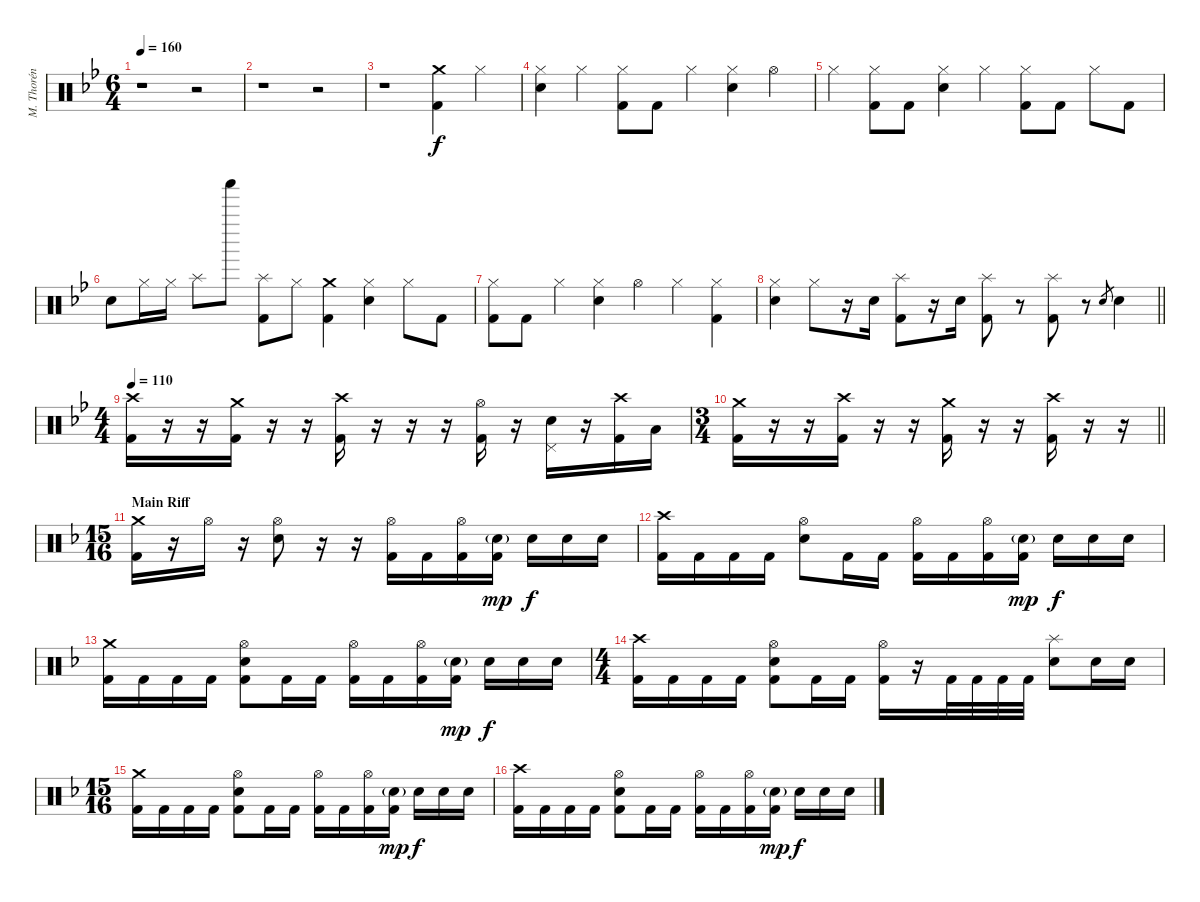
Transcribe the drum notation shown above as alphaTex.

\track ("M. Thorén (Drums)" "M. Thorén ") {instrument percussion}
\staff {score}
\articulation defaults
\ts (6 4)
\tempo 160
\clef neutral
\ks gminor
r.1{dy f} r.2 |
r.1 r.2 |
r.1 ("Crash medium (hit)" "Kick (hit) 2").4 "Hi-Hat (closed)".4 |
("Hi-Hat (closed)" "Electric Snare (hit)").4 "Hi-Hat (closed)".4 ("Hi-Hat (closed)" "Kick (hit) 2").8 "Kick (hit) 2".8 "Hi-Hat (closed)".4 ("Hi-Hat (closed)" "Electric Snare (hit)").4 "Hi-Hat (open)".4 |
"Hi-Hat (closed)".4 ("Hi-Hat (closed)" "Kick (hit) 2").8 "Kick (hit) 2".8 ("Hi-Hat (closed)" "Electric Snare (hit)").4 "Hi-Hat (closed)".4 ("Hi-Hat (closed)" "Kick (hit) 2").8 "Kick (hit) 2".8 "Hi-Hat (closed)".8 "Kick (hit) 2".8 |
"Electric Snare (hit)".8 "Hi-Hat (closed)".16 "Hi-Hat (closed)".16 "Splash (hit)".8 "Shaker (hit)".8 ("Splash (hit)" "Kick (hit) 2").8 "Hi-Hat (closed)".8 ("Crash medium (hit)" "Kick (hit) 2").4 ("Hi-Hat (closed)" "Electric Snare (hit)").4 "Hi-Hat (closed)".8 "Kick (hit) 2".8 |
("Hi-Hat (closed)" "Kick (hit) 2").8 "Kick (hit) 2".8 "Hi-Hat (closed)".4 ("Hi-Hat (closed)" "Electric Snare (hit)").4 "Hi-Hat (open)".4 "Hi-Hat (closed)".4 ("Hi-Hat (closed)" "Kick (hit) 2").4 |
\barLineRight lightlight
("Hi-Hat (closed)" "Electric Snare (hit)").4 "Hi-Hat (closed)".8 r.16 "Electric Snare (hit)".16 ("Splash (hit)" "Kick (hit) 2").8 r.16 "Electric Snare (hit)".16 ("Splash (hit)" "Kick (hit) 2").8 r.8 ("Splash (hit)" "Kick (hit) 2").8 r.8 "Electric Snare (hit)".8{gr} "Electric Snare (hit)".4 |
\ts (4 4)
\tempo 110
("Crash high (hit)" "Kick (hit) 2").16 r.16 r.16 ("Crash medium (hit)" "Kick (hit) 2").16 r.16 r.16 ("Crash high (hit)" "Kick (hit) 2").16 r.16 r.16 r.16 ("Hi-Hat (open)" "Kick (hit) 2").16 r.16 ("Pedal Hi-Hat (hit)" "Electric Snare (hit)").16 r.16 ("Crash high (hit)" "Kick (hit) 2").16 "Low Tom (hit)".16 |
\ts (3 4)
\barLineRight lightlight
("Crash medium (hit)" "Kick (hit) 2").16 r.16 r.16 ("Crash high (hit)" "Kick (hit) 2").16 r.16 r.16 ("Crash medium (hit)" "Kick (hit) 2").16 r.16 r.16 ("Crash high (hit)" "Kick (hit) 2").16 r.16 r.16 |
\ts (15 16)
\section ("" "Main Riff")
\ks dminor
("Crash medium (hit)" "Kick (hit) 2").16 r.16 "Hi-Hat (open)".16 r.16 ("Hi-Hat (open)" "Electric Snare (hit)").8 r.16 r.16 ("Hi-Hat (open)" "Kick (hit) 2").16 "Kick (hit) 2".16 ("Hi-Hat (open)" "Kick (hit) 2").16 ("Electric Snare (hit)"{g} "Kick (hit) 2").16{dy mp} "Electric Snare (hit)".16{dy f} "Electric Snare (hit)".16 "Electric Snare (hit)".16 |
("Crash high (hit)" "Kick (hit) 2").16 "Kick (hit) 2".16 "Kick (hit) 2".16 "Kick (hit) 2".16 ("Hi-Hat (open)" "Electric Snare (hit)").8 "Kick (hit) 2".16 "Kick (hit) 2".16 ("Hi-Hat (open)" "Kick (hit) 2").16 "Kick (hit) 2".16 ("Hi-Hat (open)" "Kick (hit) 2").16 ("Electric Snare (hit)"{g} "Kick (hit) 2").16{dy mp} "Electric Snare (hit)".16{dy f} "Electric Snare (hit)".16 "Electric Snare (hit)".16 |
("Crash medium (hit)" "Kick (hit) 2").16 "Kick (hit) 2".16 "Kick (hit) 2".16 "Kick (hit) 2".16 ("Hi-Hat (open)" "Electric Snare (hit)" "Kick (hit) 2").8 "Kick (hit) 2".16 "Kick (hit) 2".16 ("Hi-Hat (open)" "Kick (hit) 2").16 "Kick (hit) 2".16 ("Hi-Hat (open)" "Kick (hit) 2").16 ("Electric Snare (hit)"{g} "Kick (hit) 2").16{dy mp} "Electric Snare (hit)".16{dy f} "Electric Snare (hit)".16 "Electric Snare (hit)".16 |
\ts (4 4)
("Crash high (hit)" "Kick (hit) 2").16 "Kick (hit) 2".16 "Kick (hit) 2".16 "Kick (hit) 2".16 ("Hi-Hat (open)" "Electric Snare (hit)" "Kick (hit) 2").8 "Kick (hit) 2".16 "Kick (hit) 2".16 ("Hi-Hat (open)" "Kick (hit) 2").16 r.16 "Kick (hit) 2".32 "Kick (hit) 2".32 "Kick (hit) 2".32 "Kick (hit) 2".32 ("Splash (hit)" "Electric Snare (hit)").8 "Electric Snare (hit)".16 "Electric Snare (hit)".16 |
\ts (15 16)
("Crash medium (hit)" "Kick (hit) 2").16 "Kick (hit) 2".16 "Kick (hit) 2".16 "Kick (hit) 2".16 ("Hi-Hat (open)" "Electric Snare (hit)" "Kick (hit) 2").8 "Kick (hit) 2".16 "Kick (hit) 2".16 ("Hi-Hat (open)" "Kick (hit) 2").16 "Kick (hit) 2".16 ("Hi-Hat (open)" "Kick (hit) 2").16 ("Electric Snare (hit)"{g} "Kick (hit) 2").16{dy mp} "Electric Snare (hit)".16{dy f} "Electric Snare (hit)".16 "Electric Snare (hit)".16 |
("Crash high (hit)" "Kick (hit) 2").16 "Kick (hit) 2".16 "Kick (hit) 2".16 "Kick (hit) 2".16 ("Hi-Hat (open)" "Electric Snare (hit)" "Kick (hit) 2").8 "Kick (hit) 2".16 "Kick (hit) 2".16 ("Hi-Hat (open)" "Kick (hit) 2").16 "Kick (hit) 2".16 ("Hi-Hat (open)" "Kick (hit) 2").16 ("Electric Snare (hit)"{g} "Kick (hit) 2").16{dy mp} "Electric Snare (hit)".16{dy f} "Electric Snare (hit)".16 "Electric Snare (hit)".16
